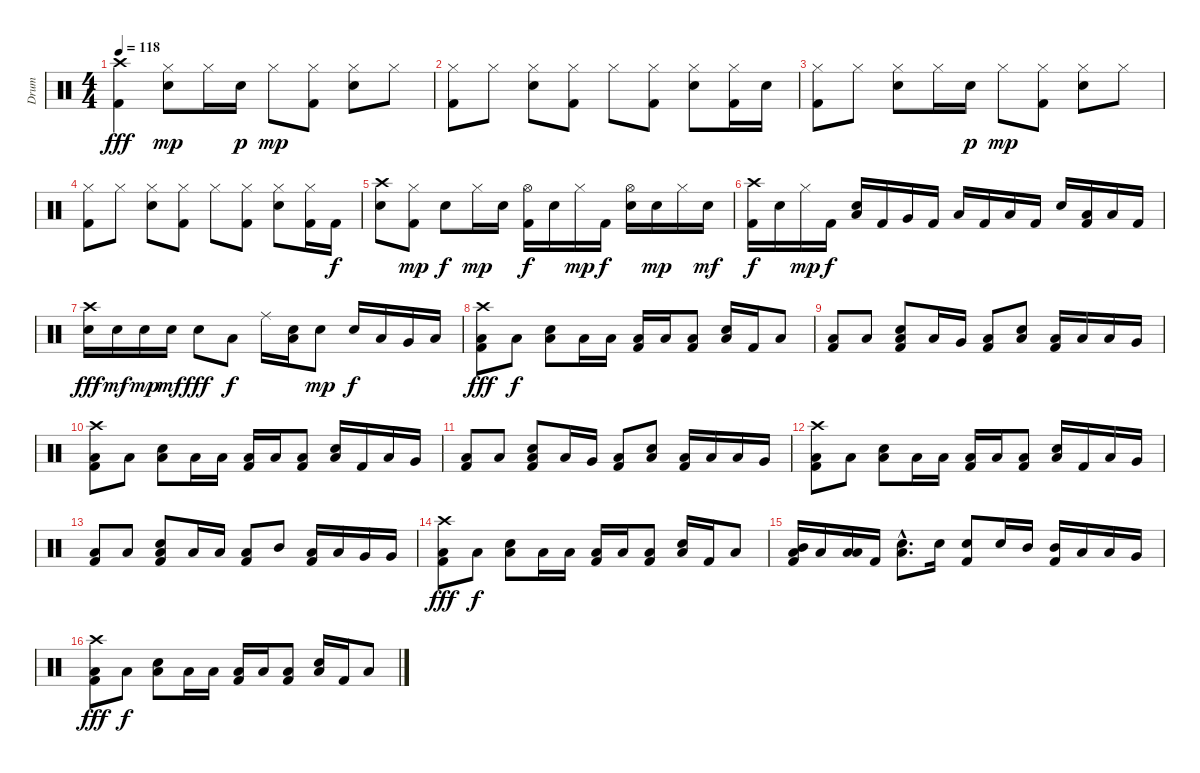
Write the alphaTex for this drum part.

\track ("Drum" "Drum") {instrument percussion}
\staff {score}
\articulation defaults
\ts (4 4)
\tempo 118
\clef neutral
\ks c
("Crash high (hit)" "Kick (hit) 2").4{dy fff} ("Hi-Hat (closed)" "Snare (hit) 2").8{dy mp} "Hi-Hat (closed)".16 "Snare (hit) 2".16{dy p} "Hi-Hat (closed)".8{dy mp} ("Hi-Hat (closed)" "Kick (hit) 2").8 ("Hi-Hat (closed)" "Snare (hit) 2").8 "Hi-Hat (closed)".8 |
("Hi-Hat (closed)" "Kick (hit) 2").8 "Hi-Hat (closed)".8 ("Hi-Hat (closed)" "Snare (hit) 2").8 ("Hi-Hat (closed)" "Kick (hit) 2").8 "Hi-Hat (closed)".8 ("Hi-Hat (closed)" "Kick (hit) 2").8 ("Hi-Hat (closed)" "Snare (hit) 2").8 ("Hi-Hat (closed)" "Kick (hit) 2").16 "Snare (hit) 2".16 |
("Hi-Hat (closed)" "Kick (hit) 2").8 "Hi-Hat (closed)".8 ("Hi-Hat (closed)" "Snare (hit) 2").8 "Hi-Hat (closed)".16 "Snare (hit) 2".16{dy p} "Hi-Hat (closed)".8{dy mp} ("Hi-Hat (closed)" "Kick (hit) 2").8 ("Hi-Hat (closed)" "Snare (hit) 2").8 "Hi-Hat (closed)".8 |
("Hi-Hat (closed)" "Kick (hit) 2").8 "Hi-Hat (closed)".8 ("Hi-Hat (closed)" "Snare (hit) 2").8 ("Hi-Hat (closed)" "Kick (hit) 2").8 "Hi-Hat (closed)".8 ("Hi-Hat (closed)" "Kick (hit) 2").8 ("Hi-Hat (closed)" "Snare (hit) 2").8 ("Hi-Hat (closed)" "Kick (hit) 2").16 "Kick (hit) 2".16{dy f} |
("Crash high (hit)" "Snare (hit) 2").8 ("Hi-Hat (closed)" "Kick (hit) 2").8{dy mp} "Snare (hit) 2".8{dy f} "Hi-Hat (closed)".16{dy mp} "Snare (hit) 2".16 ("Hi-Hat (open)" "Kick (hit) 2").16{dy f} "Snare (hit) 2".16 "Hi-Hat (closed)".16{dy mp} "Kick (hit) 2".16{dy f} ("Hi-Hat (open)" "Snare (hit) 2").16 "Snare (hit) 2".16{dy mp} "Hi-Hat (closed)".16 "Snare (hit) 2".16{dy mf} |
("Crash high (hit)" "Kick (hit) 2").16{dy f} "Snare (hit) 2".16 "Hi-Hat (closed)".16{dy mp} "Kick (hit) 2".16{dy f} ("Snare (hit) 2" "Low Tom (hit)").16 "Kick (hit) 2".16 "Very Low Tom (hit)".16 "Kick (hit) 2".16 "Low Floor Tom (hit)".16 "Kick (hit) 2".16 "Low Floor Tom (hit)".16 "Kick (hit) 2".16 "Snare (hit) 2".16 ("Low Tom (hit)" "Kick (hit) 2").16 "Low Floor Tom (hit)".16 "Kick (hit) 2".16 |
("Crash high (hit)" "Snare (hit) 2").16{dy fff} "Snare (hit) 2".16{dy mf} "Snare (hit) 2".16{dy mp} "Snare (hit) 2".16{dy mf} "Snare (hit) 2".8{dy fff} "Low Tom (hit)".8{dy f} "Ride (middle)".16 ("Snare (hit) 2" "Low Tom (hit)").16 "Snare (hit) 2".8{dy mp} "Snare (hit) 2".16{dy f} "Low Tom (hit)".16 "Very Low Tom (hit)".16 "Low Floor Tom (hit)".16 |
("Crash high (hit)" "Low Floor Tom (hit)" "Kick (hit) 2").8{dy fff} "Low Floor Tom (hit)".8{dy f} ("Snare (hit) 2" "Low Floor Tom (hit)").8 "Low Floor Tom (hit)".16 "Low Tom (hit)".16 ("Low Floor Tom (hit)" "Kick (hit) 2").16 "Low Tom (hit)".16 ("Low Floor Tom (hit)" "Kick (hit) 2").8 ("Snare (hit) 2" "Low Floor Tom (hit)").16 "Kick (hit) 2".16 "Low Floor Tom (hit)".8 |
("Low Floor Tom (hit)" "Kick (hit) 2").8 "Low Floor Tom (hit)".8 ("Snare (hit) 2" "Low Floor Tom (hit)" "Kick (hit) 2").8 "Low Floor Tom (hit)".16 "Very Low Tom (hit)".16 ("Low Floor Tom (hit)" "Kick (hit) 2").8 ("Snare (hit) 2" "Low Floor Tom (hit)").8 ("Low Floor Tom (hit)" "Kick (hit) 2").16 "Low Tom (hit)".16 "Low Floor Tom (hit)".16 "Very Low Tom (hit)".16 |
("Crash high (hit)" "Low Floor Tom (hit)" "Kick (hit) 2").8 "Low Floor Tom (hit)".8 ("Snare (hit) 2" "Low Floor Tom (hit)").8 "Low Floor Tom (hit)".16 "Low Tom (hit)".16 ("Low Floor Tom (hit)" "Kick (hit) 2").16 "Low Tom (hit)".16 ("Low Floor Tom (hit)" "Kick (hit) 2").8 ("Snare (hit) 2" "Low Floor Tom (hit)").16 "Kick (hit) 2".16 "Low Floor Tom (hit)".16 "Very Low Tom (hit)".16 |
("Low Floor Tom (hit)" "Kick (hit) 2").8 "Low Floor Tom (hit)".8 ("Snare (hit) 2" "Low Floor Tom (hit)" "Kick (hit) 2").8 "Low Floor Tom (hit)".16 "Very Low Tom (hit)".16 ("Low Floor Tom (hit)" "Kick (hit) 2").8 ("Snare (hit) 2" "Low Floor Tom (hit)").8 ("Low Floor Tom (hit)" "Kick (hit) 2").16 "Low Tom (hit)".16 "Low Floor Tom (hit)".16 "Very Low Tom (hit)".16 |
("Crash high (hit)" "Low Floor Tom (hit)" "Kick (hit) 2").8 "Low Floor Tom (hit)".8 ("Snare (hit) 2" "Low Floor Tom (hit)").8 "Low Floor Tom (hit)".16 "Low Tom (hit)".16 ("Low Floor Tom (hit)" "Kick (hit) 2").16 "Low Tom (hit)".16 ("Low Floor Tom (hit)" "Kick (hit) 2").8 ("Snare (hit) 2" "Low Floor Tom (hit)").16 "Kick (hit) 2".16 "Low Floor Tom (hit)".16 "Very Low Tom (hit)".16 |
("Low Floor Tom (hit)" "Kick (hit) 2").8 "Low Floor Tom (hit)".8 ("Snare (hit) 2" "Low Floor Tom (hit)" "Kick (hit) 2").8 "Low Floor Tom (hit)".16 "Low Tom (hit)".16 ("Low Floor Tom (hit)" "Kick (hit) 2").8 "Mid Tom (hit)".8 ("Low Floor Tom (hit)" "Kick (hit) 2").16 "Low Tom (hit)".16 "Very Low Tom (hit)".16 "Very Low Tom (hit)".16 |
("Crash high (hit)" "Low Floor Tom (hit)" "Kick (hit) 2").8{dy fff} "Low Floor Tom (hit)".8{dy f} ("Snare (hit) 2" "Low Floor Tom (hit)").8 "Low Floor Tom (hit)".16 "Low Tom (hit)".16 ("Low Floor Tom (hit)" "Kick (hit) 2").16 "Low Tom (hit)".16 ("Low Floor Tom (hit)" "Kick (hit) 2").8 ("Snare (hit) 2" "Low Floor Tom (hit)").16 "Kick (hit) 2".16 "Low Floor Tom (hit)".8 |
("Mid Tom (hit)" "Low Floor Tom (hit)" "Kick (hit) 2").16 "Low Tom (hit)".16 ("Low Floor Tom (hit)" "Low Floor Tom (hit)").16 "Kick (hit) 2".16 ("Snare (hit) 2"{hac} "Low Floor Tom (hit)"{hac}).8{d} "Snare (hit) 2".16 ("Snare (hit) 2" "Kick (hit) 2").8 "Snare (hit) 2".16 "Mid Tom (hit)".16 ("Mid Tom (hit)" "Kick (hit) 2").16 "Low Tom (hit)".16 "Low Floor Tom (hit)".16 "Very Low Tom (hit)".16 |
("Crash high (hit)" "Low Floor Tom (hit)" "Kick (hit) 2").8{dy fff} "Low Floor Tom (hit)".8{dy f} ("Snare (hit) 2" "Low Floor Tom (hit)").8 "Low Floor Tom (hit)".16 "Low Tom (hit)".16 ("Low Floor Tom (hit)" "Kick (hit) 2").16 "Low Tom (hit)".16 ("Low Floor Tom (hit)" "Kick (hit) 2").8 ("Snare (hit) 2" "Low Floor Tom (hit)").16 "Kick (hit) 2".16 "Low Floor Tom (hit)".8
